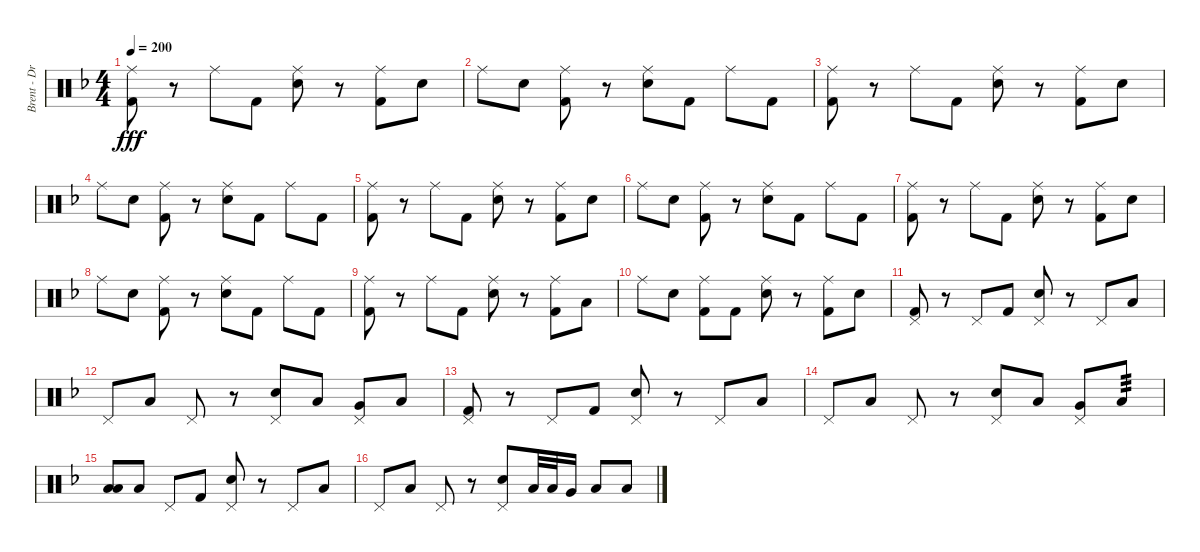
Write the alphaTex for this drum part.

\track ("Brent - Drums" "Brent - Dr") {instrument percussion}
\staff {score}
\articulation defaults
\ts (4 4)
\tempo 200
\clef neutral
\ks dminor
("Ride (middle)" "Kick (hit) 2").8{dy fff} r.8 "Ride (middle)".8 "Kick (hit) 2".8 ("Ride (middle)" "Snare (hit) 2").8 r.8 ("Ride (middle)" "Kick (hit) 2").8 "Snare (hit) 2".8 |
"Ride (middle)".8 "Snare (hit) 2".8 ("Ride (middle)" "Kick (hit) 2").8 r.8 ("Ride (middle)" "Snare (hit) 2").8 "Kick (hit) 2".8 "Ride (middle)".8 "Kick (hit) 2".8 |
("Ride (middle)" "Kick (hit) 2").8 r.8 "Ride (middle)".8 "Kick (hit) 2".8 ("Ride (middle)" "Snare (hit) 2").8 r.8 ("Ride (middle)" "Kick (hit) 2").8 "Snare (hit) 2".8 |
"Ride (middle)".8 "Snare (hit) 2".8 ("Ride (middle)" "Kick (hit) 2").8 r.8 ("Ride (middle)" "Snare (hit) 2").8 "Kick (hit) 2".8 "Ride (middle)".8 "Kick (hit) 2".8 |
("Ride (middle)" "Kick (hit) 2").8 r.8 "Ride (middle)".8 "Kick (hit) 2".8 ("Ride (middle)" "Snare (hit) 2").8 r.8 ("Ride (middle)" "Kick (hit) 2").8 "Snare (hit) 2".8 |
"Ride (middle)".8 "Snare (hit) 2".8 ("Ride (middle)" "Kick (hit) 2").8 r.8 ("Ride (middle)" "Snare (hit) 2").8 "Kick (hit) 2".8 "Ride (middle)".8 "Kick (hit) 2".8 |
("Ride (middle)" "Kick (hit) 2").8 r.8 "Ride (middle)".8 "Kick (hit) 2".8 ("Ride (middle)" "Snare (hit) 2").8 r.8 ("Ride (middle)" "Kick (hit) 2").8 "Snare (hit) 2".8 |
"Ride (middle)".8 "Snare (hit) 2".8 ("Ride (middle)" "Kick (hit) 2").8 r.8 ("Ride (middle)" "Snare (hit) 2").8 "Kick (hit) 2".8 "Ride (middle)".8 "Kick (hit) 2".8 |
("Ride (middle)" "Kick (hit) 2").8 r.8 "Ride (middle)".8 "Kick (hit) 2".8 ("Ride (middle)" "Snare (hit) 2").8 r.8 ("Ride (middle)" "Kick (hit) 2").8 "Low Floor Tom (hit)".8 |
"Ride (middle)".8 "Snare (hit) 2".8 ("Ride (middle)" "Kick (hit) 2").8 "Kick (hit) 2".8 ("Ride (middle)" "Snare (hit) 2").8 r.8 ("Ride (middle)" "Kick (hit) 2").8 "Snare (hit) 2".8 |
("Pedal Hi-Hat (hit)" "Kick (hit) 2").8 r.8 "Pedal Hi-Hat (hit)".8 "Kick (hit) 2".8 ("Pedal Hi-Hat (hit)" "Snare (hit) 2").8 r.8 "Pedal Hi-Hat (hit)".8 "Low Tom (hit)".8 |
"Pedal Hi-Hat (hit)".8 "Low Floor Tom (hit)".8 "Pedal Hi-Hat (hit)".8 r.8 ("Pedal Hi-Hat (hit)" "Snare (hit) 2").8 "Low Tom (hit)".8 ("Pedal Hi-Hat (hit)" "Very Low Tom (hit)").8 "Low Floor Tom (hit)".8 |
("Pedal Hi-Hat (hit)" "Kick (hit) 2").8 r.8 "Pedal Hi-Hat (hit)".8 "Kick (hit) 2".8 ("Pedal Hi-Hat (hit)" "Snare (hit) 2").8 r.8 "Pedal Hi-Hat (hit)".8 "Low Tom (hit)".8 |
"Pedal Hi-Hat (hit)".8 "Low Floor Tom (hit)".8 "Pedal Hi-Hat (hit)".8 r.8 ("Pedal Hi-Hat (hit)" "Snare (hit) 2").8 "Low Tom (hit)".8 ("Pedal Hi-Hat (hit)" "Very Low Tom (hit)").8 "Low Floor Tom (hit)".8{tp 3} |
("Low Floor Tom (hit)" "Low Floor Tom (hit)").8 "Low Floor Tom (hit)".8 "Pedal Hi-Hat (hit)".8 "Kick (hit) 2".8 ("Pedal Hi-Hat (hit)" "Snare (hit) 2").8 r.8 "Pedal Hi-Hat (hit)".8 "Low Tom (hit)".8 |
"Pedal Hi-Hat (hit)".8 "Low Floor Tom (hit)".8 "Pedal Hi-Hat (hit)".8 r.8 ("Pedal Hi-Hat (hit)" "Snare (hit) 2").8 "Low Tom (hit)".32 "Low Tom (hit)".32 "Very Low Tom (hit)".16 "Low Tom (hit)".8 "Low Floor Tom (hit)".8
